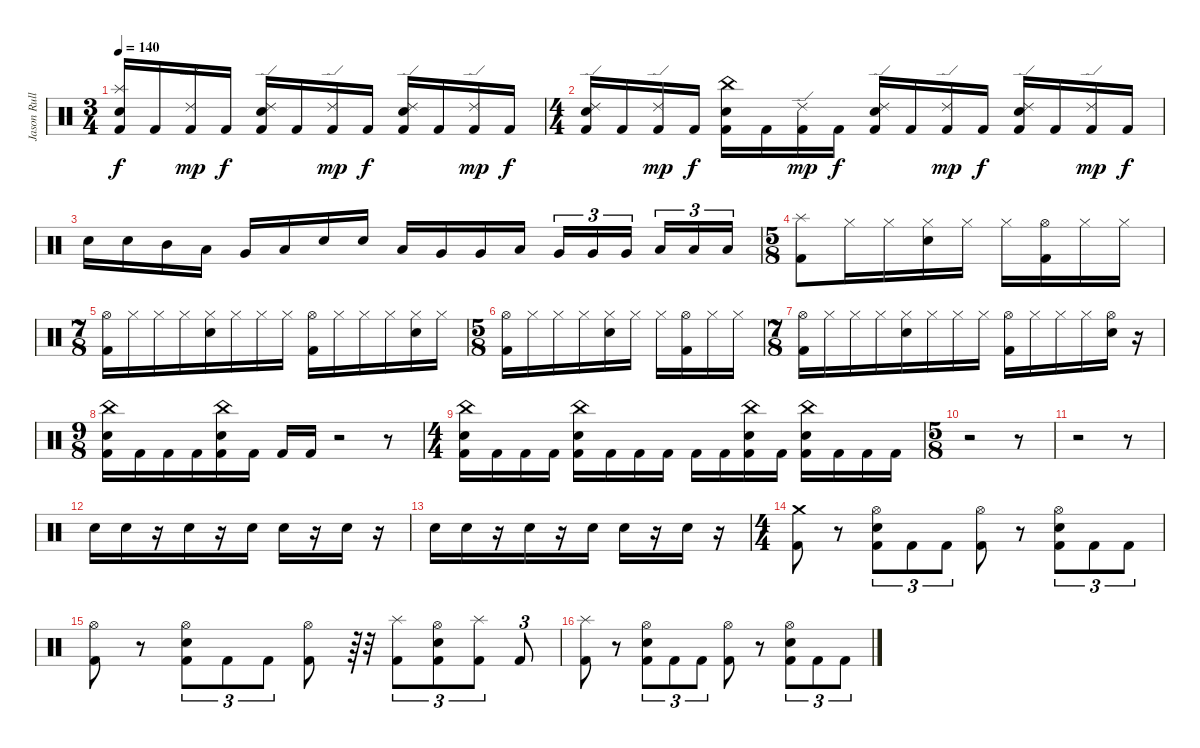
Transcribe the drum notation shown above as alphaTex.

\track ("Jason Rullo" "Jason Rull") {instrument percussion}
\staff {score}
\articulation defaults
\ts (3 4)
\tempo 140
\clef neutral
\ks c
("Electric Snare (hit)" "Splash (hit)" "Kick (hit) 2").16{dy f} "Kick (hit) 2".16 ("Ride (edge) 2" "Kick (hit) 2").16{dy mp} "Kick (hit) 2".16{dy f} ("Ride (edge) 2" "Electric Snare (hit)" "Kick (hit) 2").16 "Kick (hit) 2".16 ("Ride (edge) 2" "Kick (hit) 2").16{dy mp} "Kick (hit) 2".16{dy f} ("Ride (edge) 2" "Electric Snare (hit)" "Kick (hit) 2").16 "Kick (hit) 2".16 ("Ride (edge) 2" "Kick (hit) 2").16{dy mp} "Kick (hit) 2".16{dy f} |
\ts (4 4)
("Ride (edge) 2" "Electric Snare (hit)" "Kick (hit) 2").16 "Kick (hit) 2".16 ("Ride (edge) 2" "Kick (hit) 2").16{dy mp} "Kick (hit) 2".16{dy f} ("Electric Snare (hit)" "China (hit)" "Kick (hit) 2").16 "Kick (hit) 2".16 ("Ride (edge) 2" "Kick (hit) 2").16{dy mp} "Kick (hit) 2".16{dy f} ("Ride (edge) 2" "Electric Snare (hit)" "Kick (hit) 2").16 "Kick (hit) 2".16 ("Ride (edge) 2" "Kick (hit) 2").16{dy mp} "Kick (hit) 2".16{dy f} ("Ride (edge) 2" "Electric Snare (hit)" "Kick (hit) 2").16 "Kick (hit) 2".16 ("Ride (edge) 2" "Kick (hit) 2").16{dy mp} "Kick (hit) 2".16{dy f} |
"Electric Snare (hit)".16 "Electric Snare (hit)".16 "Mid Tom (hit)".16 "Low Tom (hit)".16 "Very Low Tom (hit)".16 "Low Floor Tom (hit)".16 "Electric Snare (hit)".16 "Electric Snare (hit)".16 "Low Tom (hit)".16 "Very Low Tom (hit)".16 "Very Low Tom (hit)".16 "Low Floor Tom (hit)".16 "Very Low Tom (hit)".16{tu (3 2)} "Very Low Tom (hit)".16{tu (3 2)} "Very Low Tom (hit)".16{tu (3 2)} "Low Floor Tom (hit)".16{tu (3 2)} "Low Floor Tom (hit)".16{tu (3 2)} "Low Floor Tom (hit)".16{tu (3 2)} |
\ts (5 8)
("Splash (hit)" "Kick (hit) 2").8 "Hi-Hat (closed)".16 "Hi-Hat (closed)".16 ("Hi-Hat (closed)" "Electric Snare (hit)").16 "Hi-Hat (closed)".16 "Hi-Hat (closed)".16 ("Hi-Hat (open)" "Kick (hit) 2").16 "Hi-Hat (closed)".16 "Hi-Hat (closed)".16 |
\ts (7 8)
("Hi-Hat (open)" "Kick (hit) 2").16 "Hi-Hat (closed)".16 "Hi-Hat (closed)".16 "Hi-Hat (closed)".16 ("Hi-Hat (closed)" "Electric Snare (hit)").16 "Hi-Hat (closed)".16 "Hi-Hat (closed)".16 "Hi-Hat (closed)".16 ("Hi-Hat (open)" "Kick (hit) 2").16 "Hi-Hat (closed)".16 "Hi-Hat (closed)".16 "Hi-Hat (closed)".16 ("Hi-Hat (closed)" "Electric Snare (hit)").16 "Hi-Hat (closed)".16 |
\ts (5 8)
("Hi-Hat (open)" "Kick (hit) 2").16 "Hi-Hat (closed)".16 "Hi-Hat (closed)".16 "Hi-Hat (closed)".16 ("Hi-Hat (closed)" "Electric Snare (hit)").16 "Hi-Hat (closed)".16 "Hi-Hat (closed)".16 ("Hi-Hat (open)" "Kick (hit) 2").16 "Hi-Hat (closed)".16 "Hi-Hat (closed)".16 |
\ts (7 8)
("Hi-Hat (open)" "Kick (hit) 2").16 "Hi-Hat (closed)".16 "Hi-Hat (closed)".16 "Hi-Hat (closed)".16 ("Hi-Hat (closed)" "Electric Snare (hit)").16 "Hi-Hat (closed)".16 "Hi-Hat (closed)".16 "Hi-Hat (closed)".16 ("Hi-Hat (open)" "Kick (hit) 2").16 "Hi-Hat (closed)".16 "Hi-Hat (closed)".16 "Hi-Hat (closed)".16 ("Hi-Hat (open)" "Electric Snare (hit)").16 r.16 |
\ts (9 8)
("China (hit)" "Kick (hit) 2" "Electric Snare (hit)").16 "Kick (hit) 2".16 "Kick (hit) 2".16 "Kick (hit) 2".16 ("China (hit)" "Kick (hit) 2" "Electric Snare (hit)").16 "Kick (hit) 2".16 "Kick (hit) 2".16 "Kick (hit) 2".16 r.2 r.8 |
\ts (4 4)
("China (hit)" "Electric Snare (hit)" "Kick (hit) 2").16 "Kick (hit) 2".16 "Kick (hit) 2".16 "Kick (hit) 2".16 ("China (hit)" "Electric Snare (hit)" "Kick (hit) 2").16 "Kick (hit) 2".16 "Kick (hit) 2".16 "Kick (hit) 2".16 "Kick (hit) 2".16 "Kick (hit) 2".16 ("China (hit)" "Electric Snare (hit)" "Kick (hit) 2").16 "Kick (hit) 2".16 ("China (hit)" "Electric Snare (hit)" "Kick (hit) 2").16 "Kick (hit) 2".16 "Kick (hit) 2".16 "Kick (hit) 2".16 |
\ts (5 8)
r.2 r.8 |
r.2 r.8 |
"Electric Snare (hit)".16 "Electric Snare (hit)".16 r.16 "Electric Snare (hit)".16 r.16 "Electric Snare (hit)".16 "Electric Snare (hit)".16 r.16 "Electric Snare (hit)".16 r.16 |
"Electric Snare (hit)".16 "Electric Snare (hit)".16 r.16 "Electric Snare (hit)".16 r.16 "Electric Snare (hit)".16 "Electric Snare (hit)".16 r.16 "Electric Snare (hit)".16 r.16 |
\ts (4 4)
("Crash medium (hit)" "Kick (hit) 2").8 r.8 ("Hi-Hat (open)" "Electric Snare (hit)" "Kick (hit) 2").8{tu (3 2)} "Kick (hit) 2".8{tu (3 2)} "Kick (hit) 2".8{tu (3 2)} ("Hi-Hat (open)" "Kick (hit) 2").8 r.8 ("Hi-Hat (open)" "Kick (hit) 2" "Electric Snare (hit)").8{tu (3 2)} "Kick (hit) 2".8{tu (3 2)} "Kick (hit) 2".8{tu (3 2)} |
("Kick (hit) 2" "Hi-Hat (open)").8 r.8 ("Kick (hit) 2" "Electric Snare (hit)" "Hi-Hat (open)").8{tu (3 2)} "Kick (hit) 2".8{tu (3 2)} "Kick (hit) 2".8{tu (3 2)} ("Kick (hit) 2" "Hi-Hat (open)").8 r.64{tu (3 2)} r.32 ("Kick (hit) 2" "Splash (hit)").8{tu (3 2)} ("Electric Snare (hit)" "Kick (hit) 2" "Hi-Hat (open)").8{tu (3 2)} ("Splash (hit)" "Kick (hit) 2").8{tu (3 2)} "Kick (hit) 2".8{tu (3 2)} |
("Splash (hit)" "Kick (hit) 2").8{volume 15 balance 8} r.8 ("Hi-Hat (open)" "Electric Snare (hit)" "Kick (hit) 2").8{tu (3 2)} "Kick (hit) 2".8{tu (3 2)} "Kick (hit) 2".8{tu (3 2)} ("Hi-Hat (open)" "Kick (hit) 2").8 r.8 ("Hi-Hat (open)" "Kick (hit) 2" "Electric Snare (hit)").8{tu (3 2)} "Kick (hit) 2".8{tu (3 2)} "Kick (hit) 2".8{tu (3 2)}
